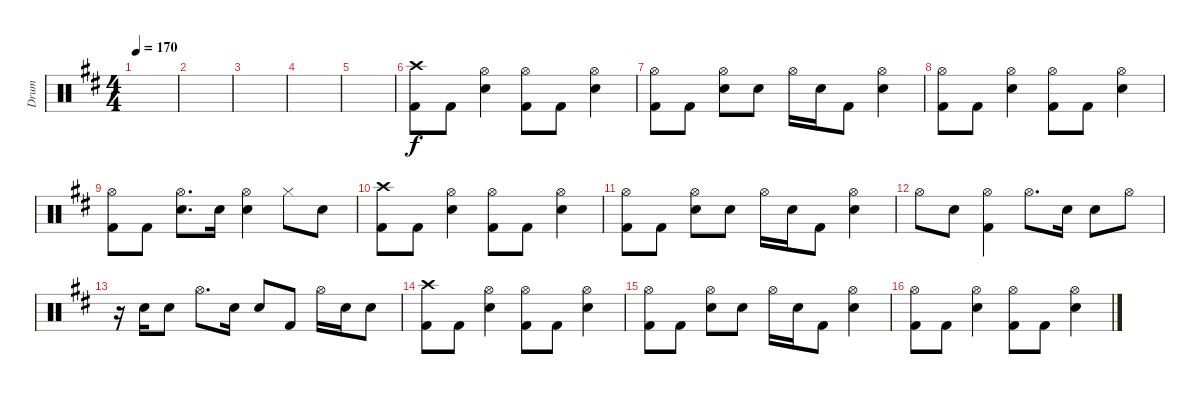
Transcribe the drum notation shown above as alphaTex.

\track ("Drum" "Drum") {instrument percussion}
\staff {score}
\articulation defaults
\ts (4 4)
\tempo 170
\clef neutral
\ks d
|
|
|
|
|
("Crash high (hit)" "Kick (hit) 2").8 "Kick (hit) 2".8 ("Hi-Hat (open)" "Electric Snare (hit)").4 ("Hi-Hat (open)" "Kick (hit) 2").8 "Kick (hit) 2".8 ("Hi-Hat (open)" "Electric Snare (hit)").4 |
("Hi-Hat (open)" "Kick (hit) 2").8 "Kick (hit) 2".8 ("Hi-Hat (open)" "Electric Snare (hit)").8 "Electric Snare (hit)".8 "Hi-Hat (open)".16 "Electric Snare (hit)".16 "Kick (hit) 2".8 ("Hi-Hat (open)" "Electric Snare (hit)").4 |
("Hi-Hat (open)" "Kick (hit) 2").8 "Kick (hit) 2".8 ("Hi-Hat (open)" "Electric Snare (hit)").4 ("Hi-Hat (open)" "Kick (hit) 2").8 "Kick (hit) 2".8 ("Hi-Hat (open)" "Electric Snare (hit)").4 |
("Hi-Hat (open)" "Kick (hit) 2").8 "Kick (hit) 2".8 ("Hi-Hat (open)" "Electric Snare (hit)").8{d} "Electric Snare (hit)".16 ("Hi-Hat (open)" "Electric Snare (hit)").4 "Hi-Hat (closed)".8 "Electric Snare (hit)".8 |
("Crash high (hit)" "Kick (hit) 2").8 "Kick (hit) 2".8 ("Hi-Hat (open)" "Electric Snare (hit)").4 ("Hi-Hat (open)" "Kick (hit) 2").8 "Kick (hit) 2".8 ("Hi-Hat (open)" "Electric Snare (hit)").4 |
("Hi-Hat (open)" "Kick (hit) 2").8 "Kick (hit) 2".8 ("Hi-Hat (open)" "Electric Snare (hit)").8 "Electric Snare (hit)".8 "Hi-Hat (open)".16 "Electric Snare (hit)".16 "Kick (hit) 2".8 ("Hi-Hat (open)" "Electric Snare (hit)").4 |
"Hi-Hat (open)".8 "Electric Snare (hit)".8 ("Hi-Hat (open)" "Kick (hit) 2").4 "Hi-Hat (open)".8{d} "Electric Snare (hit)".16 "Electric Snare (hit)".8 "Hi-Hat (open)".8 |
r.16 "Electric Snare (hit)".16 "Electric Snare (hit)".8 "Hi-Hat (open)".8{d} "Electric Snare (hit)".16 "Electric Snare (hit)".8 "Kick (hit) 2".8 "Hi-Hat (open)".16 "Electric Snare (hit)".16 "Electric Snare (hit)".8 |
("Crash high (hit)" "Kick (hit) 2").8 "Kick (hit) 2".8 ("Hi-Hat (open)" "Electric Snare (hit)").4 ("Hi-Hat (open)" "Kick (hit) 2").8 "Kick (hit) 2".8 ("Hi-Hat (open)" "Electric Snare (hit)").4 |
("Hi-Hat (open)" "Kick (hit) 2").8 "Kick (hit) 2".8 ("Hi-Hat (open)" "Electric Snare (hit)").8 "Electric Snare (hit)".8 "Hi-Hat (open)".16 "Electric Snare (hit)".16 "Kick (hit) 2".8 ("Hi-Hat (open)" "Electric Snare (hit)").4 |
("Hi-Hat (open)" "Kick (hit) 2").8 "Kick (hit) 2".8 ("Hi-Hat (open)" "Electric Snare (hit)").4 ("Hi-Hat (open)" "Kick (hit) 2").8 "Kick (hit) 2".8 ("Hi-Hat (open)" "Electric Snare (hit)").4
